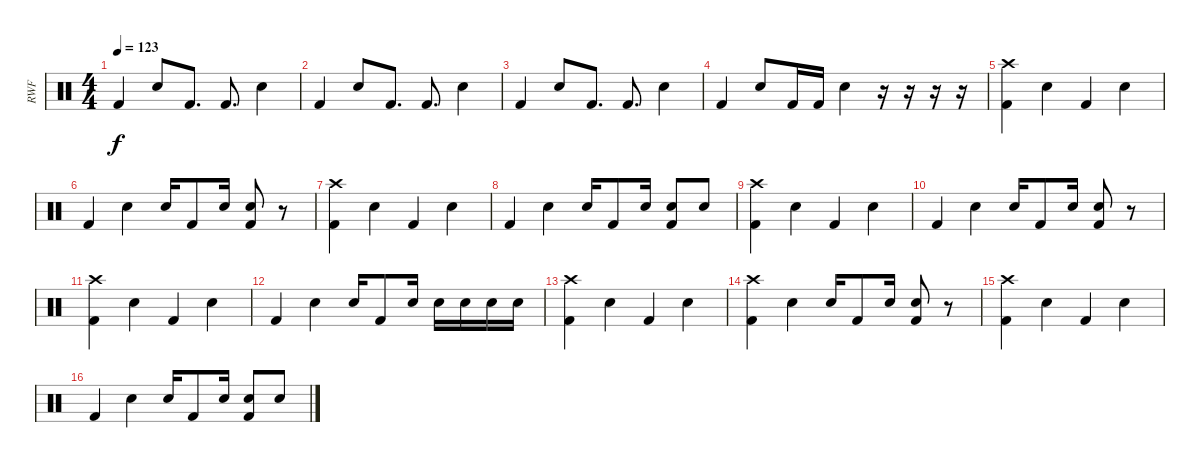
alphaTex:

\track ("RWF" "RWF") {instrument percussion}
\staff {score}
\articulation defaults
\ts (4 4)
\tempo 123
\clef neutral
\ks c "Kick (hit) 2".4{dy f} "Electric Snare (hit)".8 "Kick (hit) 2".8{d} "Kick (hit) 2".8{d} "Electric Snare (hit)".4
|
"Kick (hit) 2".4 "Electric Snare (hit)".8 "Kick (hit) 2".8{d} "Kick (hit) 2".8{d} "Electric Snare (hit)".4 |
"Kick (hit) 2".4 "Electric Snare (hit)".8 "Kick (hit) 2".8{d} "Kick (hit) 2".8{d} "Electric Snare (hit)".4 |
"Kick (hit) 2".4 "Electric Snare (hit)".8 "Kick (hit) 2".16 "Kick (hit) 2".16 "Electric Snare (hit)".4 r.16 r.16 r.16 r.16 |
("Kick (hit) 2" "Crash high (hit)").4 "Electric Snare (hit)".4 "Kick (hit) 2".4 "Electric Snare (hit)".4 |
"Kick (hit) 2".4 "Electric Snare (hit)".4 "Electric Snare (hit)".16 "Kick (hit) 2".8 "Electric Snare (hit)".16 ("Kick (hit) 2" "Electric Snare (hit)").8 r.8 |
("Kick (hit) 2" "Crash high (hit)").4 "Electric Snare (hit)".4 "Kick (hit) 2".4 "Electric Snare (hit)".4 |
"Kick (hit) 2".4 "Electric Snare (hit)".4 "Electric Snare (hit)".16 "Kick (hit) 2".8 "Electric Snare (hit)".16 ("Kick (hit) 2" "Electric Snare (hit)").8 "Electric Snare (hit)".8 |
("Kick (hit) 2" "Crash high (hit)").4 "Electric Snare (hit)".4 "Kick (hit) 2".4 "Electric Snare (hit)".4 |
"Kick (hit) 2".4 "Electric Snare (hit)".4 "Electric Snare (hit)".16 "Kick (hit) 2".8 "Electric Snare (hit)".16 ("Kick (hit) 2" "Electric Snare (hit)").8 r.8 |
("Kick (hit) 2" "Crash high (hit)").4 "Electric Snare (hit)".4 "Kick (hit) 2".4 "Electric Snare (hit)".4 |
"Kick (hit) 2".4 "Electric Snare (hit)".4 "Electric Snare (hit)".16 "Kick (hit) 2".8 "Electric Snare (hit)".16 "Electric Snare (hit)".16 "Electric Snare (hit)".16 "Electric Snare (hit)".16 "Electric Snare (hit)".16 |
("Kick (hit) 2" "Crash high (hit)").4 "Electric Snare (hit)".4 "Kick (hit) 2".4 "Electric Snare (hit)".4 |
("Kick (hit) 2" "Crash high (hit)").4 "Electric Snare (hit)".4 "Electric Snare (hit)".16 "Kick (hit) 2".8 "Electric Snare (hit)".16 ("Kick (hit) 2" "Electric Snare (hit)").8 r.8 |
("Kick (hit) 2" "Crash high (hit)").4 "Electric Snare (hit)".4 "Kick (hit) 2".4 "Electric Snare (hit)".4 |
"Kick (hit) 2".4 "Electric Snare (hit)".4 "Electric Snare (hit)".16 "Kick (hit) 2".8 "Electric Snare (hit)".16 ("Kick (hit) 2" "Electric Snare (hit)").8 "Electric Snare (hit)".8
